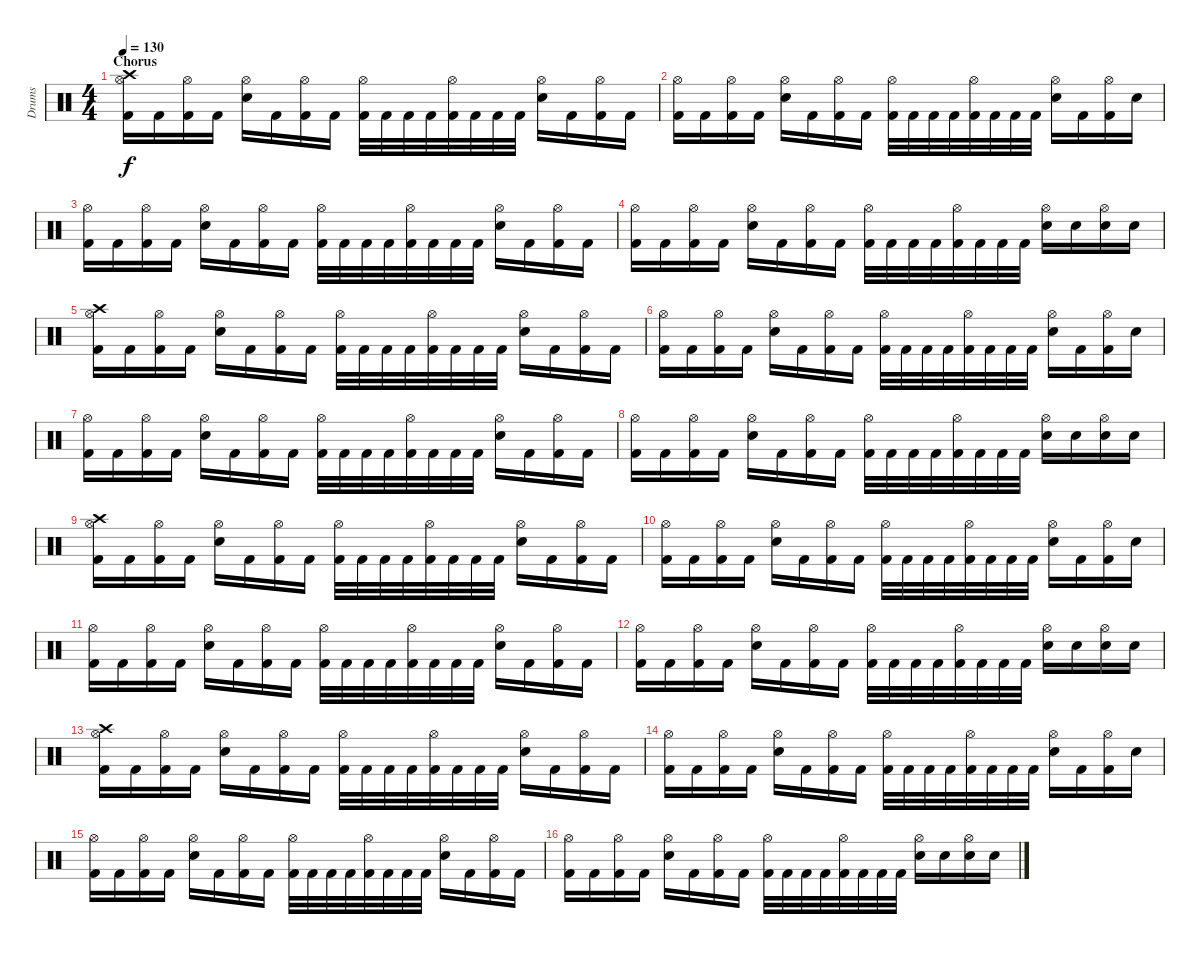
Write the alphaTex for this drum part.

\track ("Drums" "Drums") {instrument percussion}
\staff {score}
\articulation defaults
\ts (4 4)
\section ("" "Chorus")
\tempo 130
\clef neutral
\ks c
("Crash high (hit)" "Hi-Hat (open)" "Kick (hit) 2").16{dy f} "Kick (hit) 2".16 ("Hi-Hat (open)" "Kick (hit) 2").16 "Kick (hit) 2".16 ("Hi-Hat (open)" "Electric Snare (hit)").16 "Kick (hit) 2".16 ("Hi-Hat (open)" "Kick (hit) 2").16 "Kick (hit) 2".16 ("Hi-Hat (open)" "Kick (hit) 2").32 "Kick (hit) 2".32 "Kick (hit) 2".32 "Kick (hit) 2".32 ("Hi-Hat (open)" "Kick (hit) 2").32 "Kick (hit) 2".32 "Kick (hit) 2".32 "Kick (hit) 2".32 ("Hi-Hat (open)" "Electric Snare (hit)").16 "Kick (hit) 2".16 ("Hi-Hat (open)" "Kick (hit) 2").16 "Kick (hit) 2".16 |
("Hi-Hat (open)" "Kick (hit) 2").16 "Kick (hit) 2".16 ("Hi-Hat (open)" "Kick (hit) 2").16 "Kick (hit) 2".16 ("Hi-Hat (open)" "Electric Snare (hit)").16 "Kick (hit) 2".16 ("Hi-Hat (open)" "Kick (hit) 2").16 "Kick (hit) 2".16 ("Hi-Hat (open)" "Kick (hit) 2").32 "Kick (hit) 2".32 "Kick (hit) 2".32 "Kick (hit) 2".32 ("Hi-Hat (open)" "Kick (hit) 2").32 "Kick (hit) 2".32 "Kick (hit) 2".32 "Kick (hit) 2".32 ("Hi-Hat (open)" "Electric Snare (hit)").16 "Kick (hit) 2".16 ("Hi-Hat (open)" "Kick (hit) 2").16 "Electric Snare (hit)".16 |
("Hi-Hat (open)" "Kick (hit) 2").16 "Kick (hit) 2".16 ("Hi-Hat (open)" "Kick (hit) 2").16 "Kick (hit) 2".16 ("Hi-Hat (open)" "Electric Snare (hit)").16 "Kick (hit) 2".16 ("Hi-Hat (open)" "Kick (hit) 2").16 "Kick (hit) 2".16 ("Hi-Hat (open)" "Kick (hit) 2").32 "Kick (hit) 2".32 "Kick (hit) 2".32 "Kick (hit) 2".32 ("Hi-Hat (open)" "Kick (hit) 2").32 "Kick (hit) 2".32 "Kick (hit) 2".32 "Kick (hit) 2".32 ("Hi-Hat (open)" "Electric Snare (hit)").16 "Kick (hit) 2".16 ("Hi-Hat (open)" "Kick (hit) 2").16 "Kick (hit) 2".16 |
("Hi-Hat (open)" "Kick (hit) 2").16 "Kick (hit) 2".16 ("Hi-Hat (open)" "Kick (hit) 2").16 "Kick (hit) 2".16 ("Hi-Hat (open)" "Electric Snare (hit)").16 "Kick (hit) 2".16 ("Hi-Hat (open)" "Kick (hit) 2").16 "Kick (hit) 2".16 ("Hi-Hat (open)" "Kick (hit) 2").32 "Kick (hit) 2".32 "Kick (hit) 2".32 "Kick (hit) 2".32 ("Hi-Hat (open)" "Kick (hit) 2").32 "Kick (hit) 2".32 "Kick (hit) 2".32 "Kick (hit) 2".32 ("Hi-Hat (open)" "Electric Snare (hit)").16 "Electric Snare (hit)".16 ("Hi-Hat (open)" "Electric Snare (hit)").16 "Electric Snare (hit)".16 |
("Crash high (hit)" "Hi-Hat (open)" "Kick (hit) 2").16 "Kick (hit) 2".16 ("Hi-Hat (open)" "Kick (hit) 2").16 "Kick (hit) 2".16 ("Hi-Hat (open)" "Electric Snare (hit)").16 "Kick (hit) 2".16 ("Hi-Hat (open)" "Kick (hit) 2").16 "Kick (hit) 2".16 ("Hi-Hat (open)" "Kick (hit) 2").32 "Kick (hit) 2".32 "Kick (hit) 2".32 "Kick (hit) 2".32 ("Hi-Hat (open)" "Kick (hit) 2").32 "Kick (hit) 2".32 "Kick (hit) 2".32 "Kick (hit) 2".32 ("Hi-Hat (open)" "Electric Snare (hit)").16 "Kick (hit) 2".16 ("Hi-Hat (open)" "Kick (hit) 2").16 "Kick (hit) 2".16 |
("Hi-Hat (open)" "Kick (hit) 2").16 "Kick (hit) 2".16 ("Hi-Hat (open)" "Kick (hit) 2").16 "Kick (hit) 2".16 ("Hi-Hat (open)" "Electric Snare (hit)").16 "Kick (hit) 2".16 ("Hi-Hat (open)" "Kick (hit) 2").16 "Kick (hit) 2".16 ("Hi-Hat (open)" "Kick (hit) 2").32 "Kick (hit) 2".32 "Kick (hit) 2".32 "Kick (hit) 2".32 ("Hi-Hat (open)" "Kick (hit) 2").32 "Kick (hit) 2".32 "Kick (hit) 2".32 "Kick (hit) 2".32 ("Hi-Hat (open)" "Electric Snare (hit)").16 "Kick (hit) 2".16 ("Hi-Hat (open)" "Kick (hit) 2").16 "Electric Snare (hit)".16 |
("Hi-Hat (open)" "Kick (hit) 2").16 "Kick (hit) 2".16 ("Hi-Hat (open)" "Kick (hit) 2").16 "Kick (hit) 2".16 ("Hi-Hat (open)" "Electric Snare (hit)").16 "Kick (hit) 2".16 ("Hi-Hat (open)" "Kick (hit) 2").16 "Kick (hit) 2".16 ("Hi-Hat (open)" "Kick (hit) 2").32 "Kick (hit) 2".32 "Kick (hit) 2".32 "Kick (hit) 2".32 ("Hi-Hat (open)" "Kick (hit) 2").32 "Kick (hit) 2".32 "Kick (hit) 2".32 "Kick (hit) 2".32 ("Hi-Hat (open)" "Electric Snare (hit)").16 "Kick (hit) 2".16 ("Hi-Hat (open)" "Kick (hit) 2").16 "Kick (hit) 2".16 |
("Hi-Hat (open)" "Kick (hit) 2").16 "Kick (hit) 2".16 ("Hi-Hat (open)" "Kick (hit) 2").16 "Kick (hit) 2".16 ("Hi-Hat (open)" "Electric Snare (hit)").16 "Kick (hit) 2".16 ("Hi-Hat (open)" "Kick (hit) 2").16 "Kick (hit) 2".16 ("Hi-Hat (open)" "Kick (hit) 2").32 "Kick (hit) 2".32 "Kick (hit) 2".32 "Kick (hit) 2".32 ("Hi-Hat (open)" "Kick (hit) 2").32 "Kick (hit) 2".32 "Kick (hit) 2".32 "Kick (hit) 2".32 ("Hi-Hat (open)" "Electric Snare (hit)").16 "Electric Snare (hit)".16 ("Hi-Hat (open)" "Electric Snare (hit)").16 "Electric Snare (hit)".16 |
("Crash high (hit)" "Hi-Hat (open)" "Kick (hit) 2").16 "Kick (hit) 2".16 ("Hi-Hat (open)" "Kick (hit) 2").16 "Kick (hit) 2".16 ("Hi-Hat (open)" "Electric Snare (hit)").16 "Kick (hit) 2".16 ("Hi-Hat (open)" "Kick (hit) 2").16 "Kick (hit) 2".16 ("Hi-Hat (open)" "Kick (hit) 2").32 "Kick (hit) 2".32 "Kick (hit) 2".32 "Kick (hit) 2".32 ("Hi-Hat (open)" "Kick (hit) 2").32 "Kick (hit) 2".32 "Kick (hit) 2".32 "Kick (hit) 2".32 ("Hi-Hat (open)" "Electric Snare (hit)").16 "Kick (hit) 2".16 ("Hi-Hat (open)" "Kick (hit) 2").16 "Kick (hit) 2".16 |
("Hi-Hat (open)" "Kick (hit) 2").16 "Kick (hit) 2".16 ("Hi-Hat (open)" "Kick (hit) 2").16 "Kick (hit) 2".16 ("Hi-Hat (open)" "Electric Snare (hit)").16 "Kick (hit) 2".16 ("Hi-Hat (open)" "Kick (hit) 2").16 "Kick (hit) 2".16 ("Hi-Hat (open)" "Kick (hit) 2").32 "Kick (hit) 2".32 "Kick (hit) 2".32 "Kick (hit) 2".32 ("Hi-Hat (open)" "Kick (hit) 2").32 "Kick (hit) 2".32 "Kick (hit) 2".32 "Kick (hit) 2".32 ("Hi-Hat (open)" "Electric Snare (hit)").16 "Kick (hit) 2".16 ("Hi-Hat (open)" "Kick (hit) 2").16 "Electric Snare (hit)".16 |
("Hi-Hat (open)" "Kick (hit) 2").16 "Kick (hit) 2".16 ("Hi-Hat (open)" "Kick (hit) 2").16 "Kick (hit) 2".16 ("Hi-Hat (open)" "Electric Snare (hit)").16 "Kick (hit) 2".16 ("Hi-Hat (open)" "Kick (hit) 2").16 "Kick (hit) 2".16 ("Hi-Hat (open)" "Kick (hit) 2").32 "Kick (hit) 2".32 "Kick (hit) 2".32 "Kick (hit) 2".32 ("Hi-Hat (open)" "Kick (hit) 2").32 "Kick (hit) 2".32 "Kick (hit) 2".32 "Kick (hit) 2".32 ("Hi-Hat (open)" "Electric Snare (hit)").16 "Kick (hit) 2".16 ("Hi-Hat (open)" "Kick (hit) 2").16 "Kick (hit) 2".16 |
("Hi-Hat (open)" "Kick (hit) 2").16 "Kick (hit) 2".16 ("Hi-Hat (open)" "Kick (hit) 2").16 "Kick (hit) 2".16 ("Hi-Hat (open)" "Electric Snare (hit)").16 "Kick (hit) 2".16 ("Hi-Hat (open)" "Kick (hit) 2").16 "Kick (hit) 2".16 ("Hi-Hat (open)" "Kick (hit) 2").32 "Kick (hit) 2".32 "Kick (hit) 2".32 "Kick (hit) 2".32 ("Hi-Hat (open)" "Kick (hit) 2").32 "Kick (hit) 2".32 "Kick (hit) 2".32 "Kick (hit) 2".32 ("Hi-Hat (open)" "Electric Snare (hit)").16 "Electric Snare (hit)".16 ("Hi-Hat (open)" "Electric Snare (hit)").16 "Electric Snare (hit)".16 |
("Crash high (hit)" "Hi-Hat (open)" "Kick (hit) 2").16 "Kick (hit) 2".16 ("Hi-Hat (open)" "Kick (hit) 2").16 "Kick (hit) 2".16 ("Hi-Hat (open)" "Electric Snare (hit)").16 "Kick (hit) 2".16 ("Hi-Hat (open)" "Kick (hit) 2").16 "Kick (hit) 2".16 ("Hi-Hat (open)" "Kick (hit) 2").32 "Kick (hit) 2".32 "Kick (hit) 2".32 "Kick (hit) 2".32 ("Hi-Hat (open)" "Kick (hit) 2").32 "Kick (hit) 2".32 "Kick (hit) 2".32 "Kick (hit) 2".32 ("Hi-Hat (open)" "Electric Snare (hit)").16 "Kick (hit) 2".16 ("Hi-Hat (open)" "Kick (hit) 2").16 "Kick (hit) 2".16 |
("Hi-Hat (open)" "Kick (hit) 2").16 "Kick (hit) 2".16 ("Hi-Hat (open)" "Kick (hit) 2").16 "Kick (hit) 2".16 ("Hi-Hat (open)" "Electric Snare (hit)").16 "Kick (hit) 2".16 ("Hi-Hat (open)" "Kick (hit) 2").16 "Kick (hit) 2".16 ("Hi-Hat (open)" "Kick (hit) 2").32 "Kick (hit) 2".32 "Kick (hit) 2".32 "Kick (hit) 2".32 ("Hi-Hat (open)" "Kick (hit) 2").32 "Kick (hit) 2".32 "Kick (hit) 2".32 "Kick (hit) 2".32 ("Hi-Hat (open)" "Electric Snare (hit)").16 "Kick (hit) 2".16 ("Hi-Hat (open)" "Kick (hit) 2").16 "Electric Snare (hit)".16 |
("Hi-Hat (open)" "Kick (hit) 2").16 "Kick (hit) 2".16 ("Hi-Hat (open)" "Kick (hit) 2").16 "Kick (hit) 2".16 ("Hi-Hat (open)" "Electric Snare (hit)").16 "Kick (hit) 2".16 ("Hi-Hat (open)" "Kick (hit) 2").16 "Kick (hit) 2".16 ("Hi-Hat (open)" "Kick (hit) 2").32 "Kick (hit) 2".32 "Kick (hit) 2".32 "Kick (hit) 2".32 ("Hi-Hat (open)" "Kick (hit) 2").32 "Kick (hit) 2".32 "Kick (hit) 2".32 "Kick (hit) 2".32 ("Hi-Hat (open)" "Electric Snare (hit)").16 "Kick (hit) 2".16 ("Hi-Hat (open)" "Kick (hit) 2").16 "Kick (hit) 2".16 |
("Hi-Hat (open)" "Kick (hit) 2").16 "Kick (hit) 2".16 ("Hi-Hat (open)" "Kick (hit) 2").16 "Kick (hit) 2".16 ("Hi-Hat (open)" "Electric Snare (hit)").16 "Kick (hit) 2".16 ("Hi-Hat (open)" "Kick (hit) 2").16 "Kick (hit) 2".16 ("Hi-Hat (open)" "Kick (hit) 2").32 "Kick (hit) 2".32 "Kick (hit) 2".32 "Kick (hit) 2".32 ("Hi-Hat (open)" "Kick (hit) 2").32 "Kick (hit) 2".32 "Kick (hit) 2".32 "Kick (hit) 2".32 ("Hi-Hat (open)" "Electric Snare (hit)").16 "Electric Snare (hit)".16 ("Hi-Hat (open)" "Electric Snare (hit)").16 "Electric Snare (hit)".16
